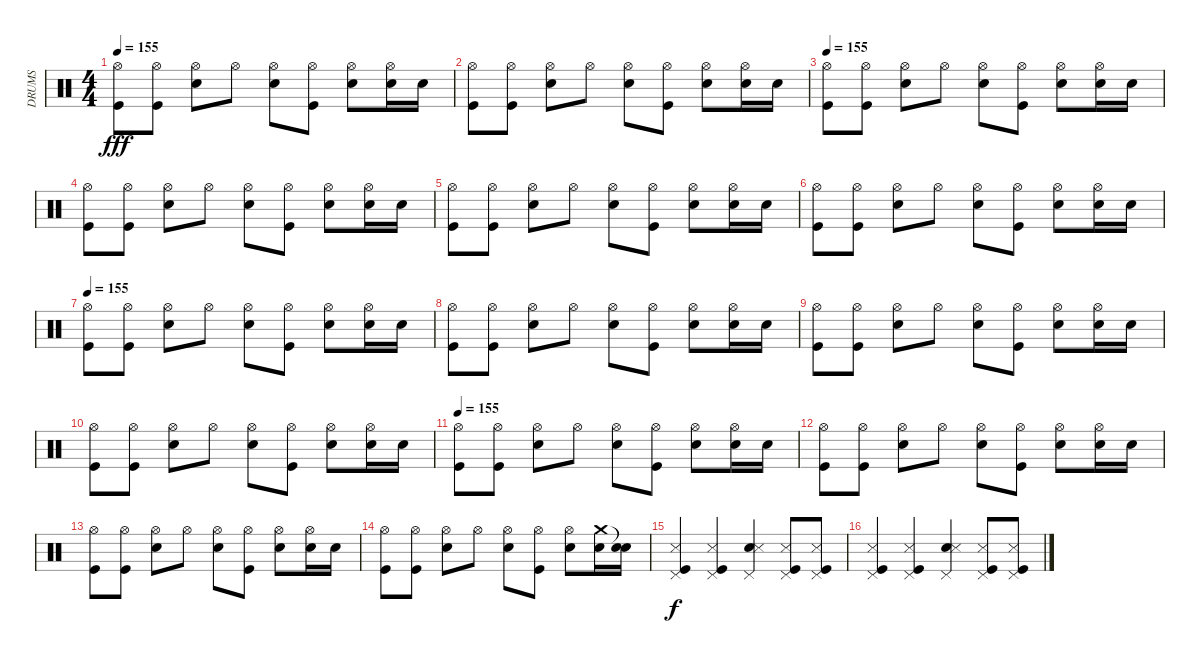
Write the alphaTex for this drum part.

\track ("DRUMS" "DRUMS") {instrument percussion}
\staff {score}
\articulation defaults
\ts (4 4)
\tempo 155
\clef neutral
\ks c
("Kick (hit)" "Hi-Hat (open)").8{dy fff} ("Kick (hit)" "Hi-Hat (open)").8 ("Snare (hit) 2" "Hi-Hat (open)").8 "Hi-Hat (open)".8 ("Snare (hit) 2" "Hi-Hat (open)").8 ("Kick (hit)" "Hi-Hat (open)").8 ("Snare (hit) 2" "Hi-Hat (open)").8 ("Snare (hit) 2" "Hi-Hat (open)").16 "Snare (hit) 2".16 |
("Kick (hit)" "Hi-Hat (open)").8 ("Kick (hit)" "Hi-Hat (open)").8 ("Snare (hit) 2" "Hi-Hat (open)").8 "Hi-Hat (open)".8 ("Snare (hit) 2" "Hi-Hat (open)").8 ("Kick (hit)" "Hi-Hat (open)").8 ("Snare (hit) 2" "Hi-Hat (open)").8 ("Snare (hit) 2" "Hi-Hat (open)").16 "Snare (hit) 2".16 |
\tempo 155
("Kick (hit)" "Hi-Hat (open)").8 ("Kick (hit)" "Hi-Hat (open)").8 ("Snare (hit) 2" "Hi-Hat (open)").8 "Hi-Hat (open)".8 ("Snare (hit) 2" "Hi-Hat (open)").8 ("Kick (hit)" "Hi-Hat (open)").8 ("Snare (hit) 2" "Hi-Hat (open)").8 ("Snare (hit) 2" "Hi-Hat (open)").16 "Snare (hit) 2".16 |
("Kick (hit)" "Hi-Hat (open)").8 ("Kick (hit)" "Hi-Hat (open)").8 ("Snare (hit) 2" "Hi-Hat (open)").8 "Hi-Hat (open)".8 ("Snare (hit) 2" "Hi-Hat (open)").8 ("Kick (hit)" "Hi-Hat (open)").8 ("Snare (hit) 2" "Hi-Hat (open)").8 ("Snare (hit) 2" "Hi-Hat (open)").16 "Snare (hit) 2".16 |
("Kick (hit)" "Hi-Hat (open)").8 ("Kick (hit)" "Hi-Hat (open)").8 ("Snare (hit) 2" "Hi-Hat (open)").8 "Hi-Hat (open)".8 ("Snare (hit) 2" "Hi-Hat (open)").8 ("Kick (hit)" "Hi-Hat (open)").8 ("Snare (hit) 2" "Hi-Hat (open)").8 ("Snare (hit) 2" "Hi-Hat (open)").16 "Snare (hit) 2".16 |
("Kick (hit)" "Hi-Hat (open)").8 ("Kick (hit)" "Hi-Hat (open)").8 ("Snare (hit) 2" "Hi-Hat (open)").8 "Hi-Hat (open)".8 ("Snare (hit) 2" "Hi-Hat (open)").8 ("Kick (hit)" "Hi-Hat (open)").8 ("Snare (hit) 2" "Hi-Hat (open)").8 ("Snare (hit) 2" "Hi-Hat (open)").16 "Snare (hit) 2".16 |
\tempo 155
("Kick (hit)" "Hi-Hat (open)").8 ("Kick (hit)" "Hi-Hat (open)").8 ("Snare (hit) 2" "Hi-Hat (open)").8 "Hi-Hat (open)".8 ("Snare (hit) 2" "Hi-Hat (open)").8 ("Kick (hit)" "Hi-Hat (open)").8 ("Snare (hit) 2" "Hi-Hat (open)").8 ("Snare (hit) 2" "Hi-Hat (open)").16 "Snare (hit) 2".16 |
("Kick (hit)" "Hi-Hat (open)").8 ("Kick (hit)" "Hi-Hat (open)").8 ("Snare (hit) 2" "Hi-Hat (open)").8 "Hi-Hat (open)".8 ("Snare (hit) 2" "Hi-Hat (open)").8 ("Kick (hit)" "Hi-Hat (open)").8 ("Snare (hit) 2" "Hi-Hat (open)").8 ("Snare (hit) 2" "Hi-Hat (open)").16 "Snare (hit) 2".16 |
("Kick (hit)" "Hi-Hat (open)").8 ("Kick (hit)" "Hi-Hat (open)").8 ("Snare (hit) 2" "Hi-Hat (open)").8 "Hi-Hat (open)".8 ("Snare (hit) 2" "Hi-Hat (open)").8 ("Kick (hit)" "Hi-Hat (open)").8 ("Snare (hit) 2" "Hi-Hat (open)").8 ("Snare (hit) 2" "Hi-Hat (open)").16 "Snare (hit) 2".16 |
("Kick (hit)" "Hi-Hat (open)").8 ("Kick (hit)" "Hi-Hat (open)").8 ("Snare (hit) 2" "Hi-Hat (open)").8 "Hi-Hat (open)".8 ("Snare (hit) 2" "Hi-Hat (open)").8 ("Kick (hit)" "Hi-Hat (open)").8 ("Snare (hit) 2" "Hi-Hat (open)").8 ("Snare (hit) 2" "Hi-Hat (open)").16 "Snare (hit) 2".16 |
\tempo 155
("Kick (hit)" "Hi-Hat (open)").8 ("Kick (hit)" "Hi-Hat (open)").8 ("Snare (hit) 2" "Hi-Hat (open)").8 "Hi-Hat (open)".8 ("Snare (hit) 2" "Hi-Hat (open)").8 ("Kick (hit)" "Hi-Hat (open)").8 ("Snare (hit) 2" "Hi-Hat (open)").8 ("Snare (hit) 2" "Hi-Hat (open)").16 "Snare (hit) 2".16 |
("Kick (hit)" "Hi-Hat (open)").8 ("Kick (hit)" "Hi-Hat (open)").8 ("Snare (hit) 2" "Hi-Hat (open)").8 "Hi-Hat (open)".8 ("Snare (hit) 2" "Hi-Hat (open)").8 ("Kick (hit)" "Hi-Hat (open)").8 ("Snare (hit) 2" "Hi-Hat (open)").8 ("Snare (hit) 2" "Hi-Hat (open)").16 "Snare (hit) 2".16 |
("Kick (hit)" "Hi-Hat (open)").8 ("Kick (hit)" "Hi-Hat (open)").8 ("Snare (hit) 2" "Hi-Hat (open)").8 "Hi-Hat (open)".8 ("Snare (hit) 2" "Hi-Hat (open)").8 ("Kick (hit)" "Hi-Hat (open)").8 ("Snare (hit) 2" "Hi-Hat (open)").8 ("Snare (hit) 2" "Hi-Hat (open)").16 "Snare (hit) 2".16 |
("Kick (hit)" "Hi-Hat (open)").8 ("Kick (hit)" "Hi-Hat (open)").8 ("Snare (hit) 2" "Hi-Hat (open)").8 "Hi-Hat (open)".8 ("Snare (hit) 2" "Hi-Hat (open)").8 ("Kick (hit)" "Hi-Hat (open)").8 ("Snare (hit) 2" "Hi-Hat (open)").8 ("Snare (hit) 2" "Crash medium (hit)").16 ("Snare (hit) 2" "Snare (hit)"{t}).16 |
("Kick (hit)" "Snare (side stick) 3" "Pedal Hi-Hat (hit)").4{dy f balance 2} ("Kick (hit)" "Snare (side stick) 3" "Pedal Hi-Hat (hit)").4 ("Snare (hit) 2" "Snare (side stick) 3" "Pedal Hi-Hat (hit)").4 ("Kick (hit)" "Snare (side stick) 3" "Pedal Hi-Hat (hit)").8 ("Kick (hit)" "Snare (side stick) 3" "Pedal Hi-Hat (hit)").8 |
("Kick (hit)" "Snare (side stick) 3" "Pedal Hi-Hat (hit)").4 ("Kick (hit)" "Snare (side stick) 3" "Pedal Hi-Hat (hit)").4 ("Snare (hit) 2" "Snare (side stick) 3" "Pedal Hi-Hat (hit)").4 ("Kick (hit)" "Snare (side stick) 3" "Pedal Hi-Hat (hit)").8 ("Kick (hit)" "Snare (side stick) 3" "Pedal Hi-Hat (hit)").8
